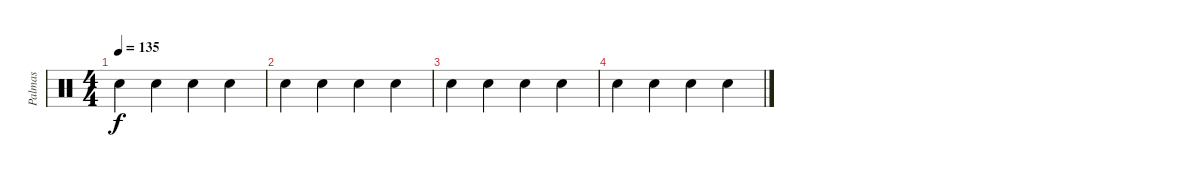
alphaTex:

\track ("Palmas" "Palmas") {instrument percussion}
\staff {score}
\articulation defaults
\ts (4 4)
\tempo 135
\clef neutral
\ks c "Hand Clap (hit)".4{dy f} "Hand Clap (hit)".4 "Hand Clap (hit)".4 "Hand Clap (hit)".4
|
"Hand Clap (hit)".4 "Hand Clap (hit)".4 "Hand Clap (hit)".4 "Hand Clap (hit)".4 |
"Hand Clap (hit)".4 "Hand Clap (hit)".4 "Hand Clap (hit)".4 "Hand Clap (hit)".4 |
"Hand Clap (hit)".4 "Hand Clap (hit)".4 "Hand Clap (hit)".4 "Hand Clap (hit)".4
